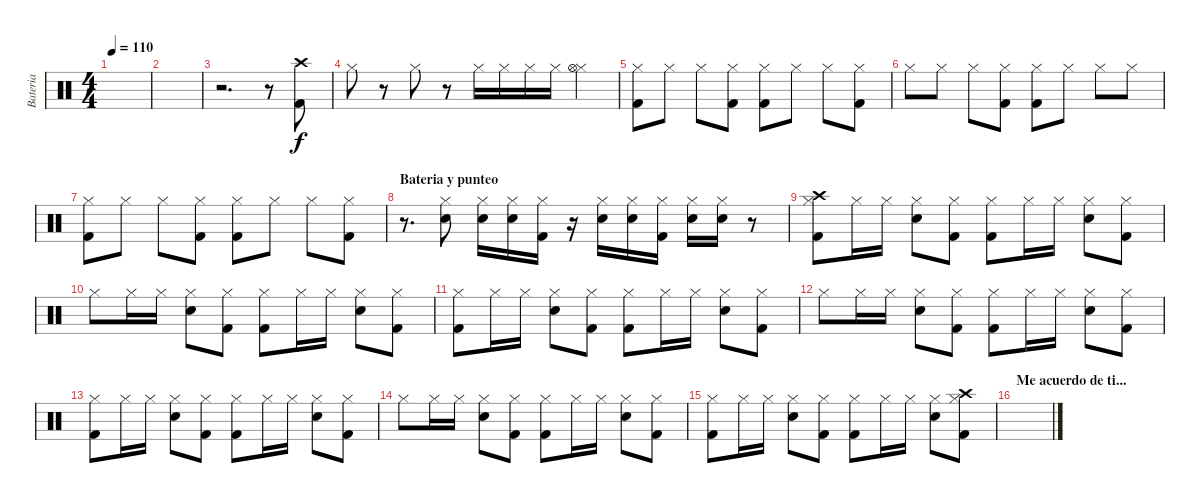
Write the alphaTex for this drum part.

\track ("Bateria" "Bateria") {instrument percussion}
\staff {score}
\articulation defaults
\ts (4 4)
\tempo 110
\clef neutral
\ks c
|
|
r.2{d} r.8 ("Crash high (hit)" "Kick (hit) 2").8 |
"Hi-Hat (closed)".8 r.8 "Hi-Hat (closed)".8 r.8 "Hi-Hat (closed)".16 "Hi-Hat (closed)".16 "Hi-Hat (closed)".16 "Hi-Hat (closed)".16 ("Hi-Hat (closed)" "Hi-Hat (open)").4 |
("Hi-Hat (closed)" "Kick (hit) 2").8 "Hi-Hat (closed)".8 "Hi-Hat (closed)".8 ("Hi-Hat (closed)" "Kick (hit) 2").8 ("Hi-Hat (closed)" "Kick (hit) 2").8 "Hi-Hat (closed)".8 "Hi-Hat (closed)".8 ("Hi-Hat (closed)" "Kick (hit) 2").8 |
"Hi-Hat (closed)".8 "Hi-Hat (closed)".8 "Hi-Hat (closed)".8 ("Hi-Hat (closed)" "Kick (hit) 2").8 ("Hi-Hat (closed)" "Kick (hit) 2").8 "Hi-Hat (closed)".8 "Hi-Hat (closed)".8 "Hi-Hat (closed)".8 |
("Hi-Hat (closed)" "Kick (hit) 2").8 "Hi-Hat (closed)".8 "Hi-Hat (closed)".8 ("Hi-Hat (closed)" "Kick (hit) 2").8 ("Hi-Hat (closed)" "Kick (hit) 2").8 "Hi-Hat (closed)".8 "Hi-Hat (closed)".8 ("Hi-Hat (closed)" "Kick (hit) 2").8 |
\section ("" "Bateria y punteo")
r.8{d} ("Hi-Hat (closed)" "Snare (hit) 2").8 ("Hi-Hat (closed)" "Snare (hit) 2").16 ("Hi-Hat (closed)" "Snare (hit) 2").16 ("Hi-Hat (closed)" "Kick (hit) 2").16 r.16 ("Hi-Hat (closed)" "Snare (hit) 2").16 ("Hi-Hat (closed)" "Snare (hit) 2").16 ("Hi-Hat (closed)" "Kick (hit) 2").16 ("Hi-Hat (closed)" "Snare (hit) 2").16 ("Hi-Hat (closed)" "Snare (hit) 2").16 r.8 |
("Hi-Hat (closed)" "Crash high (hit)" "Kick (hit) 2").8 "Hi-Hat (closed)".16 "Hi-Hat (closed)".16 ("Hi-Hat (closed)" "Snare (hit) 2").8 ("Hi-Hat (closed)" "Kick (hit) 2").8 ("Hi-Hat (closed)" "Kick (hit) 2").8 "Hi-Hat (closed)".16 "Hi-Hat (closed)".16 ("Hi-Hat (closed)" "Snare (hit) 2").8 ("Hi-Hat (closed)" "Kick (hit) 2").8 |
"Hi-Hat (closed)".8 "Hi-Hat (closed)".16 "Hi-Hat (closed)".16 ("Hi-Hat (closed)" "Snare (hit) 2").8 ("Hi-Hat (closed)" "Kick (hit) 2").8 ("Hi-Hat (closed)" "Kick (hit) 2").8 "Hi-Hat (closed)".16 "Hi-Hat (closed)".16 ("Hi-Hat (closed)" "Snare (hit) 2").8 ("Hi-Hat (closed)" "Kick (hit) 2").8 |
("Hi-Hat (closed)" "Kick (hit) 2").8 "Hi-Hat (closed)".16 "Hi-Hat (closed)".16 ("Hi-Hat (closed)" "Snare (hit) 2").8 ("Hi-Hat (closed)" "Kick (hit) 2").8 ("Hi-Hat (closed)" "Kick (hit) 2").8 "Hi-Hat (closed)".16 "Hi-Hat (closed)".16 ("Hi-Hat (closed)" "Snare (hit) 2").8 ("Hi-Hat (closed)" "Kick (hit) 2").8 |
"Hi-Hat (closed)".8 "Hi-Hat (closed)".16 "Hi-Hat (closed)".16 ("Hi-Hat (closed)" "Snare (hit) 2").8 ("Hi-Hat (closed)" "Kick (hit) 2").8 ("Hi-Hat (closed)" "Kick (hit) 2").8 "Hi-Hat (closed)".16 "Hi-Hat (closed)".16 ("Hi-Hat (closed)" "Snare (hit) 2").8 ("Hi-Hat (closed)" "Kick (hit) 2").8 |
("Hi-Hat (closed)" "Kick (hit) 2").8 "Hi-Hat (closed)".16 "Hi-Hat (closed)".16 ("Hi-Hat (closed)" "Snare (hit) 2").8 ("Hi-Hat (closed)" "Kick (hit) 2").8 ("Hi-Hat (closed)" "Kick (hit) 2").8 "Hi-Hat (closed)".16 "Hi-Hat (closed)".16 ("Hi-Hat (closed)" "Snare (hit) 2").8 ("Hi-Hat (closed)" "Kick (hit) 2").8 |
"Hi-Hat (closed)".8 "Hi-Hat (closed)".16 "Hi-Hat (closed)".16 ("Hi-Hat (closed)" "Snare (hit) 2").8 ("Hi-Hat (closed)" "Kick (hit) 2").8 ("Hi-Hat (closed)" "Kick (hit) 2").8 "Hi-Hat (closed)".16 "Hi-Hat (closed)".16 ("Hi-Hat (closed)" "Snare (hit) 2").8 ("Hi-Hat (closed)" "Kick (hit) 2").8 |
("Hi-Hat (closed)" "Kick (hit) 2").8 "Hi-Hat (closed)".16 "Hi-Hat (closed)".16 ("Hi-Hat (closed)" "Snare (hit) 2").8 ("Hi-Hat (closed)" "Kick (hit) 2").8 ("Hi-Hat (closed)" "Kick (hit) 2").8 "Hi-Hat (closed)".16 "Hi-Hat (closed)".16 ("Hi-Hat (closed)" "Snare (hit) 2").8 ("Hi-Hat (closed)" "Crash high (hit)" "Kick (hit) 2").8 |
\section ("" "Me acuerdo de ti...")
